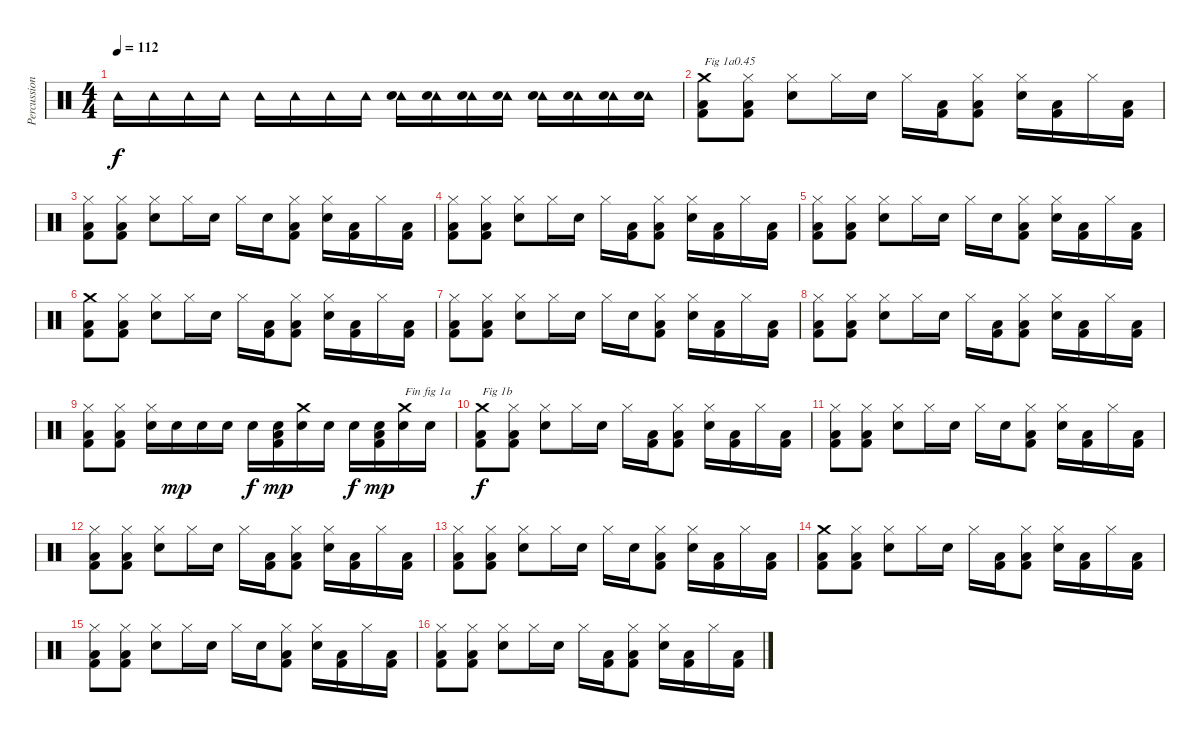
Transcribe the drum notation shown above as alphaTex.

\track ("Percussions" "Percussion") {instrument percussion}
\staff {score}
\articulation defaults
\ts (4 4)
\tempo 112
\clef neutral
\ks c "Tambourine (hit)".16{dy f} "Tambourine (hit)".16 "Tambourine (hit)".16 "Tambourine (hit)".16 "Tambourine (hit)".16 "Tambourine (hit)".16 "Tambourine (hit)".16 "Tambourine (hit)".16
("Tambourine (hit)" "Snare (hit) 2").16 ("Tambourine (hit)" "Snare (hit) 2").16 ("Tambourine (hit)" "Snare (hit) 2").16 ("Tambourine (hit)" "Snare (hit) 2").16 ("Tambourine (hit)" "Snare (hit) 2").16 ("Tambourine (hit)" "Snare (hit) 2").16 ("Tambourine (hit)" "Snare (hit) 2").16 ("Tambourine (hit)" "Snare (hit) 2").16 |
("Kick (hit) 2" "Low Floor Tom (hit)" "Crash medium (hit)").8{txt "Fig 1a0.45"} ("Kick (hit) 2" "Low Floor Tom (hit)" "Hi-Hat (closed)").8 ("Snare (hit) 2" "Hi-Hat (closed)").8 "Hi-Hat (closed)".16 "Snare (hit) 2".16 "Hi-Hat (closed)".16 ("Kick (hit) 2" "Low Floor Tom (hit)").16 ("Kick (hit) 2" "Low Floor Tom (hit)" "Hi-Hat (closed)").8 ("Snare (hit) 2" "Hi-Hat (closed)").16 ("Kick (hit) 2" "Low Floor Tom (hit)").16 "Hi-Hat (closed)".16 ("Kick (hit) 2" "Low Floor Tom (hit)").16 |
("Kick (hit) 2" "Low Floor Tom (hit)" "Hi-Hat (closed)").8 ("Kick (hit) 2" "Low Floor Tom (hit)" "Hi-Hat (closed)").8 ("Snare (hit) 2" "Hi-Hat (closed)").8 "Hi-Hat (closed)".16 "Snare (hit) 2".16 "Hi-Hat (closed)".16 "Snare (hit) 2".16 ("Kick (hit) 2" "Low Floor Tom (hit)" "Hi-Hat (closed)").8 ("Snare (hit) 2" "Hi-Hat (closed)").16 ("Kick (hit) 2" "Low Floor Tom (hit)").16 "Hi-Hat (closed)".16 ("Kick (hit) 2" "Low Floor Tom (hit)").16 |
("Kick (hit) 2" "Low Floor Tom (hit)" "Hi-Hat (closed)").8 ("Kick (hit) 2" "Low Floor Tom (hit)" "Hi-Hat (closed)").8 ("Snare (hit) 2" "Hi-Hat (closed)").8 "Hi-Hat (closed)".16 "Snare (hit) 2".16 "Hi-Hat (closed)".16 ("Kick (hit) 2" "Low Floor Tom (hit)").16 ("Kick (hit) 2" "Low Floor Tom (hit)" "Hi-Hat (closed)").8 ("Snare (hit) 2" "Hi-Hat (closed)").16 ("Kick (hit) 2" "Low Floor Tom (hit)").16 "Hi-Hat (closed)".16 ("Kick (hit) 2" "Low Floor Tom (hit)").16 |
("Kick (hit) 2" "Low Floor Tom (hit)" "Hi-Hat (closed)").8 ("Kick (hit) 2" "Low Floor Tom (hit)" "Hi-Hat (closed)").8 ("Snare (hit) 2" "Hi-Hat (closed)").8 "Hi-Hat (closed)".16 "Snare (hit) 2".16 "Hi-Hat (closed)".16 "Snare (hit) 2".16 ("Kick (hit) 2" "Low Floor Tom (hit)" "Hi-Hat (closed)").8 ("Snare (hit) 2" "Hi-Hat (closed)").16 ("Kick (hit) 2" "Low Floor Tom (hit)").16 "Hi-Hat (closed)".16 ("Kick (hit) 2" "Low Floor Tom (hit)").16 |
("Kick (hit) 2" "Low Floor Tom (hit)" "Crash medium (hit)").8 ("Kick (hit) 2" "Low Floor Tom (hit)" "Hi-Hat (closed)").8 ("Snare (hit) 2" "Hi-Hat (closed)").8 "Hi-Hat (closed)".16 "Snare (hit) 2".16 "Hi-Hat (closed)".16 ("Kick (hit) 2" "Low Floor Tom (hit)").16 ("Kick (hit) 2" "Low Floor Tom (hit)" "Hi-Hat (closed)").8 ("Snare (hit) 2" "Hi-Hat (closed)").16 ("Kick (hit) 2" "Low Floor Tom (hit)").16 "Hi-Hat (closed)".16 ("Kick (hit) 2" "Low Floor Tom (hit)").16 |
("Kick (hit) 2" "Low Floor Tom (hit)" "Hi-Hat (closed)").8 ("Kick (hit) 2" "Low Floor Tom (hit)" "Hi-Hat (closed)").8 ("Snare (hit) 2" "Hi-Hat (closed)").8 "Hi-Hat (closed)".16 "Snare (hit) 2".16 "Hi-Hat (closed)".16 "Snare (hit) 2".16 ("Kick (hit) 2" "Low Floor Tom (hit)" "Hi-Hat (closed)").8 ("Snare (hit) 2" "Hi-Hat (closed)").16 ("Kick (hit) 2" "Low Floor Tom (hit)").16 "Hi-Hat (closed)".16 ("Kick (hit) 2" "Low Floor Tom (hit)").16 |
("Kick (hit) 2" "Low Floor Tom (hit)" "Hi-Hat (closed)").8 ("Kick (hit) 2" "Low Floor Tom (hit)" "Hi-Hat (closed)").8 ("Snare (hit) 2" "Hi-Hat (closed)").8 "Hi-Hat (closed)".16 "Snare (hit) 2".16 "Hi-Hat (closed)".16 ("Kick (hit) 2" "Low Floor Tom (hit)").16 ("Kick (hit) 2" "Low Floor Tom (hit)" "Hi-Hat (closed)").8 ("Snare (hit) 2" "Hi-Hat (closed)").16 ("Kick (hit) 2" "Low Floor Tom (hit)").16 "Hi-Hat (closed)".16 ("Kick (hit) 2" "Low Floor Tom (hit)").16 |
("Kick (hit) 2" "Low Floor Tom (hit)" "Hi-Hat (closed)").8 ("Kick (hit) 2" "Low Floor Tom (hit)" "Hi-Hat (closed)").8 ("Snare (hit) 2" "Hi-Hat (closed)").16 "Snare (hit) 2".16{dy mp} "Snare (hit) 2".16 "Snare (hit) 2".16 "Snare (hit) 2".16{dy f} ("Kick (hit) 2" "Low Floor Tom (hit)" "Snare (hit) 2").16{dy mp} ("Snare (hit) 2" "Crash medium (hit)").16 "Snare (hit) 2".16 "Snare (hit) 2".16{dy f} ("Kick (hit) 2" "Low Floor Tom (hit)" "Snare (hit) 2").16{dy mp} ("Snare (hit) 2" "Crash medium (hit)").16{txt "Fin fig 1a"} "Snare (hit) 2".16 |
("Kick (hit) 2" "Low Floor Tom (hit)" "Crash medium (hit)").8{txt "Fig 1b" dy f} ("Kick (hit) 2" "Low Floor Tom (hit)" "Hi-Hat (closed)").8 ("Snare (hit) 2" "Hi-Hat (closed)").8 "Hi-Hat (closed)".16 "Snare (hit) 2".16 "Hi-Hat (closed)".16 ("Kick (hit) 2" "Low Floor Tom (hit)").16 ("Kick (hit) 2" "Low Floor Tom (hit)" "Hi-Hat (closed)").8 ("Snare (hit) 2" "Hi-Hat (closed)").16 ("Kick (hit) 2" "Low Floor Tom (hit)").16 "Hi-Hat (closed)".16 ("Kick (hit) 2" "Low Floor Tom (hit)").16 |
("Kick (hit) 2" "Low Floor Tom (hit)" "Hi-Hat (closed)").8 ("Kick (hit) 2" "Low Floor Tom (hit)" "Hi-Hat (closed)").8 ("Snare (hit) 2" "Hi-Hat (closed)").8 "Hi-Hat (closed)".16 "Snare (hit) 2".16 "Hi-Hat (closed)".16 "Snare (hit) 2".16 ("Kick (hit) 2" "Low Floor Tom (hit)" "Hi-Hat (closed)").8 ("Snare (hit) 2" "Hi-Hat (closed)").16 ("Kick (hit) 2" "Low Floor Tom (hit)").16 "Hi-Hat (closed)".16 ("Kick (hit) 2" "Low Floor Tom (hit)").16 |
("Kick (hit) 2" "Low Floor Tom (hit)" "Hi-Hat (closed)").8 ("Kick (hit) 2" "Low Floor Tom (hit)" "Hi-Hat (closed)").8 ("Snare (hit) 2" "Hi-Hat (closed)").8 "Hi-Hat (closed)".16 "Snare (hit) 2".16 "Hi-Hat (closed)".16 ("Kick (hit) 2" "Low Floor Tom (hit)").16 ("Kick (hit) 2" "Low Floor Tom (hit)" "Hi-Hat (closed)").8 ("Snare (hit) 2" "Hi-Hat (closed)").16 ("Kick (hit) 2" "Low Floor Tom (hit)").16 "Hi-Hat (closed)".16 ("Kick (hit) 2" "Low Floor Tom (hit)").16 |
("Kick (hit) 2" "Low Floor Tom (hit)" "Hi-Hat (closed)").8 ("Kick (hit) 2" "Low Floor Tom (hit)" "Hi-Hat (closed)").8 ("Snare (hit) 2" "Hi-Hat (closed)").8 "Hi-Hat (closed)".16 "Snare (hit) 2".16 "Hi-Hat (closed)".16 "Snare (hit) 2".16 ("Kick (hit) 2" "Low Floor Tom (hit)" "Hi-Hat (closed)").8 ("Snare (hit) 2" "Hi-Hat (closed)").16 ("Kick (hit) 2" "Low Floor Tom (hit)").16 "Hi-Hat (closed)".16 ("Kick (hit) 2" "Low Floor Tom (hit)").16 |
("Kick (hit) 2" "Low Floor Tom (hit)" "Crash medium (hit)").8 ("Kick (hit) 2" "Low Floor Tom (hit)" "Hi-Hat (closed)").8 ("Snare (hit) 2" "Hi-Hat (closed)").8 "Hi-Hat (closed)".16 "Snare (hit) 2".16 "Hi-Hat (closed)".16 ("Kick (hit) 2" "Low Floor Tom (hit)").16 ("Kick (hit) 2" "Low Floor Tom (hit)" "Hi-Hat (closed)").8 ("Snare (hit) 2" "Hi-Hat (closed)").16 ("Kick (hit) 2" "Low Floor Tom (hit)").16 "Hi-Hat (closed)".16 ("Kick (hit) 2" "Low Floor Tom (hit)").16 |
("Kick (hit) 2" "Low Floor Tom (hit)" "Hi-Hat (closed)").8 ("Kick (hit) 2" "Low Floor Tom (hit)" "Hi-Hat (closed)").8 ("Snare (hit) 2" "Hi-Hat (closed)").8 "Hi-Hat (closed)".16 "Snare (hit) 2".16 "Hi-Hat (closed)".16 "Snare (hit) 2".16 ("Kick (hit) 2" "Low Floor Tom (hit)" "Hi-Hat (closed)").8 ("Snare (hit) 2" "Hi-Hat (closed)").16 ("Kick (hit) 2" "Low Floor Tom (hit)").16 "Hi-Hat (closed)".16 ("Kick (hit) 2" "Low Floor Tom (hit)").16 |
("Kick (hit) 2" "Low Floor Tom (hit)" "Hi-Hat (closed)").8 ("Kick (hit) 2" "Low Floor Tom (hit)" "Hi-Hat (closed)").8 ("Snare (hit) 2" "Hi-Hat (closed)").8 "Hi-Hat (closed)".16 "Snare (hit) 2".16 "Hi-Hat (closed)".16 ("Kick (hit) 2" "Low Floor Tom (hit)").16 ("Kick (hit) 2" "Low Floor Tom (hit)" "Hi-Hat (closed)").8 ("Snare (hit) 2" "Hi-Hat (closed)").16 ("Kick (hit) 2" "Low Floor Tom (hit)").16 "Hi-Hat (closed)".16 ("Kick (hit) 2" "Low Floor Tom (hit)").16
